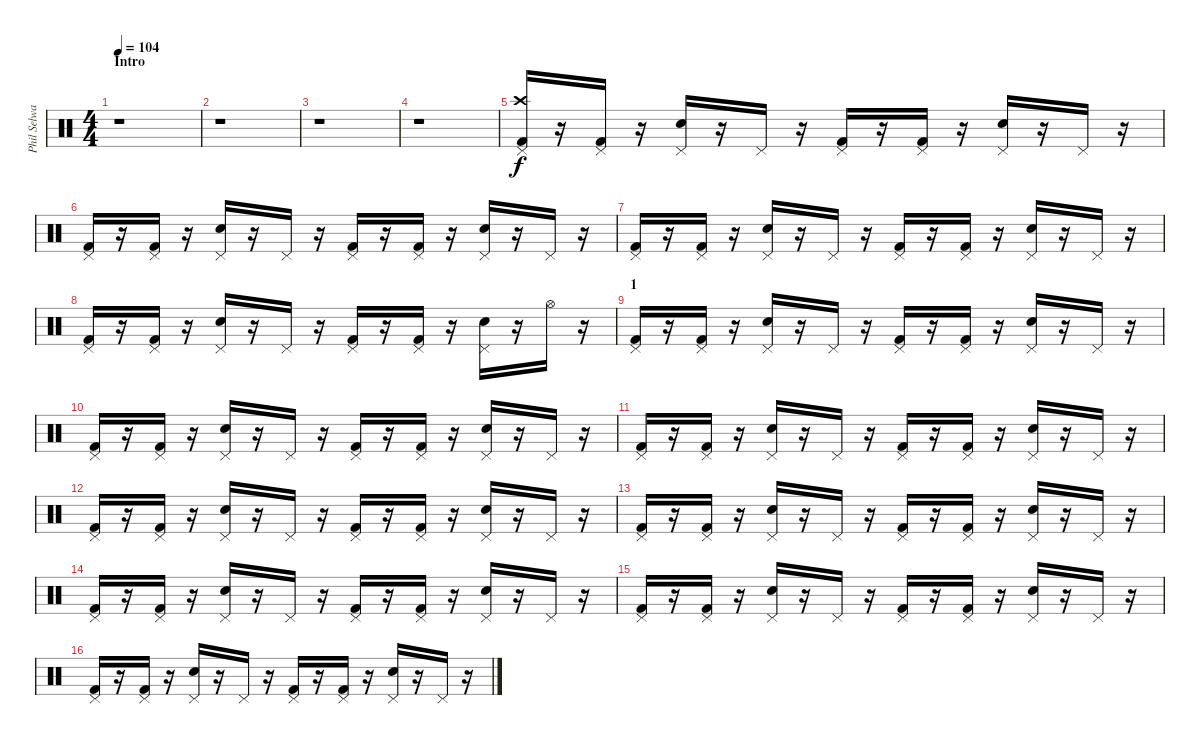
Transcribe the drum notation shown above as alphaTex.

\track ("Phil Selway" "Phil Selwa") {instrument percussion}
\staff {score}
\articulation defaults
\ts (4 4)
\section ("" "Intro")
\tempo 104
\clef neutral
\ks c
r.1{dy f} |
r.1 |
r.1 |
r.1 |
("Pedal Hi-Hat (hit)" "Crash high (hit)" "Kick (hit) 2").16 r.16 ("Pedal Hi-Hat (hit)" "Kick (hit) 2").16 r.16 ("Pedal Hi-Hat (hit)" "Electric Snare (hit)").16 r.16 "Pedal Hi-Hat (hit)".16 r.16 ("Pedal Hi-Hat (hit)" "Kick (hit) 2").16 r.16 ("Pedal Hi-Hat (hit)" "Kick (hit) 2").16 r.16 ("Pedal Hi-Hat (hit)" "Electric Snare (hit)").16 r.16 "Pedal Hi-Hat (hit)".16 r.16 |
("Pedal Hi-Hat (hit)" "Kick (hit) 2").16 r.16 ("Pedal Hi-Hat (hit)" "Kick (hit) 2").16 r.16 ("Pedal Hi-Hat (hit)" "Electric Snare (hit)").16 r.16 "Pedal Hi-Hat (hit)".16 r.16 ("Pedal Hi-Hat (hit)" "Kick (hit) 2").16 r.16 ("Pedal Hi-Hat (hit)" "Kick (hit) 2").16 r.16 ("Pedal Hi-Hat (hit)" "Electric Snare (hit)").16 r.16 "Pedal Hi-Hat (hit)".16 r.16 |
("Pedal Hi-Hat (hit)" "Kick (hit) 2").16 r.16 ("Pedal Hi-Hat (hit)" "Kick (hit) 2").16 r.16 ("Pedal Hi-Hat (hit)" "Electric Snare (hit)").16 r.16 "Pedal Hi-Hat (hit)".16 r.16 ("Pedal Hi-Hat (hit)" "Kick (hit) 2").16 r.16 ("Pedal Hi-Hat (hit)" "Kick (hit) 2").16 r.16 ("Pedal Hi-Hat (hit)" "Electric Snare (hit)").16 r.16 "Pedal Hi-Hat (hit)".16 r.16 |
("Pedal Hi-Hat (hit)" "Kick (hit) 2").16 r.16 ("Pedal Hi-Hat (hit)" "Kick (hit) 2").16 r.16 ("Pedal Hi-Hat (hit)" "Electric Snare (hit)").16 r.16 "Pedal Hi-Hat (hit)".16 r.16 ("Pedal Hi-Hat (hit)" "Kick (hit) 2").16 r.16 ("Pedal Hi-Hat (hit)" "Kick (hit) 2").16 r.16 ("Pedal Hi-Hat (hit)" "Electric Snare (hit)").16 r.16 "Hi-Hat (open)".16 r.16 |
\section ("" "1")
("Pedal Hi-Hat (hit)" "Kick (hit) 2").16 r.16 ("Pedal Hi-Hat (hit)" "Kick (hit) 2").16 r.16 ("Pedal Hi-Hat (hit)" "Electric Snare (hit)").16 r.16 "Pedal Hi-Hat (hit)".16 r.16 ("Pedal Hi-Hat (hit)" "Kick (hit) 2").16 r.16 ("Pedal Hi-Hat (hit)" "Kick (hit) 2").16 r.16 ("Pedal Hi-Hat (hit)" "Electric Snare (hit)").16 r.16 "Pedal Hi-Hat (hit)".16 r.16 |
("Pedal Hi-Hat (hit)" "Kick (hit) 2").16 r.16 ("Pedal Hi-Hat (hit)" "Kick (hit) 2").16 r.16 ("Pedal Hi-Hat (hit)" "Electric Snare (hit)").16 r.16 "Pedal Hi-Hat (hit)".16 r.16 ("Pedal Hi-Hat (hit)" "Kick (hit) 2").16 r.16 ("Pedal Hi-Hat (hit)" "Kick (hit) 2").16 r.16 ("Pedal Hi-Hat (hit)" "Electric Snare (hit)").16 r.16 "Pedal Hi-Hat (hit)".16 r.16 |
("Pedal Hi-Hat (hit)" "Kick (hit) 2").16 r.16 ("Pedal Hi-Hat (hit)" "Kick (hit) 2").16 r.16 ("Pedal Hi-Hat (hit)" "Electric Snare (hit)").16 r.16 "Pedal Hi-Hat (hit)".16 r.16 ("Pedal Hi-Hat (hit)" "Kick (hit) 2").16 r.16 ("Pedal Hi-Hat (hit)" "Kick (hit) 2").16 r.16 ("Pedal Hi-Hat (hit)" "Electric Snare (hit)").16 r.16 "Pedal Hi-Hat (hit)".16 r.16 |
("Pedal Hi-Hat (hit)" "Kick (hit) 2").16 r.16 ("Pedal Hi-Hat (hit)" "Kick (hit) 2").16 r.16 ("Pedal Hi-Hat (hit)" "Electric Snare (hit)").16 r.16 "Pedal Hi-Hat (hit)".16 r.16 ("Pedal Hi-Hat (hit)" "Kick (hit) 2").16 r.16 ("Pedal Hi-Hat (hit)" "Kick (hit) 2").16 r.16 ("Pedal Hi-Hat (hit)" "Electric Snare (hit)").16 r.16 "Pedal Hi-Hat (hit)".16 r.16 |
("Pedal Hi-Hat (hit)" "Kick (hit) 2").16 r.16 ("Pedal Hi-Hat (hit)" "Kick (hit) 2").16 r.16 ("Pedal Hi-Hat (hit)" "Electric Snare (hit)").16 r.16 "Pedal Hi-Hat (hit)".16 r.16 ("Pedal Hi-Hat (hit)" "Kick (hit) 2").16 r.16 ("Pedal Hi-Hat (hit)" "Kick (hit) 2").16 r.16 ("Pedal Hi-Hat (hit)" "Electric Snare (hit)").16 r.16 "Pedal Hi-Hat (hit)".16 r.16 |
("Pedal Hi-Hat (hit)" "Kick (hit) 2").16 r.16 ("Pedal Hi-Hat (hit)" "Kick (hit) 2").16 r.16 ("Pedal Hi-Hat (hit)" "Electric Snare (hit)").16 r.16 "Pedal Hi-Hat (hit)".16 r.16 ("Pedal Hi-Hat (hit)" "Kick (hit) 2").16 r.16 ("Pedal Hi-Hat (hit)" "Kick (hit) 2").16 r.16 ("Pedal Hi-Hat (hit)" "Electric Snare (hit)").16 r.16 "Pedal Hi-Hat (hit)".16 r.16 |
("Pedal Hi-Hat (hit)" "Kick (hit) 2").16 r.16 ("Pedal Hi-Hat (hit)" "Kick (hit) 2").16 r.16 ("Pedal Hi-Hat (hit)" "Electric Snare (hit)").16 r.16 "Pedal Hi-Hat (hit)".16 r.16 ("Pedal Hi-Hat (hit)" "Kick (hit) 2").16 r.16 ("Pedal Hi-Hat (hit)" "Kick (hit) 2").16 r.16 ("Pedal Hi-Hat (hit)" "Electric Snare (hit)").16 r.16 "Pedal Hi-Hat (hit)".16 r.16 |
("Pedal Hi-Hat (hit)" "Kick (hit) 2").16 r.16 ("Pedal Hi-Hat (hit)" "Kick (hit) 2").16 r.16 ("Pedal Hi-Hat (hit)" "Electric Snare (hit)").16 r.16 "Pedal Hi-Hat (hit)".16 r.16 ("Pedal Hi-Hat (hit)" "Kick (hit) 2").16 r.16 ("Pedal Hi-Hat (hit)" "Kick (hit) 2").16 r.16 ("Pedal Hi-Hat (hit)" "Electric Snare (hit)").16 r.16 "Pedal Hi-Hat (hit)".16 r.16
